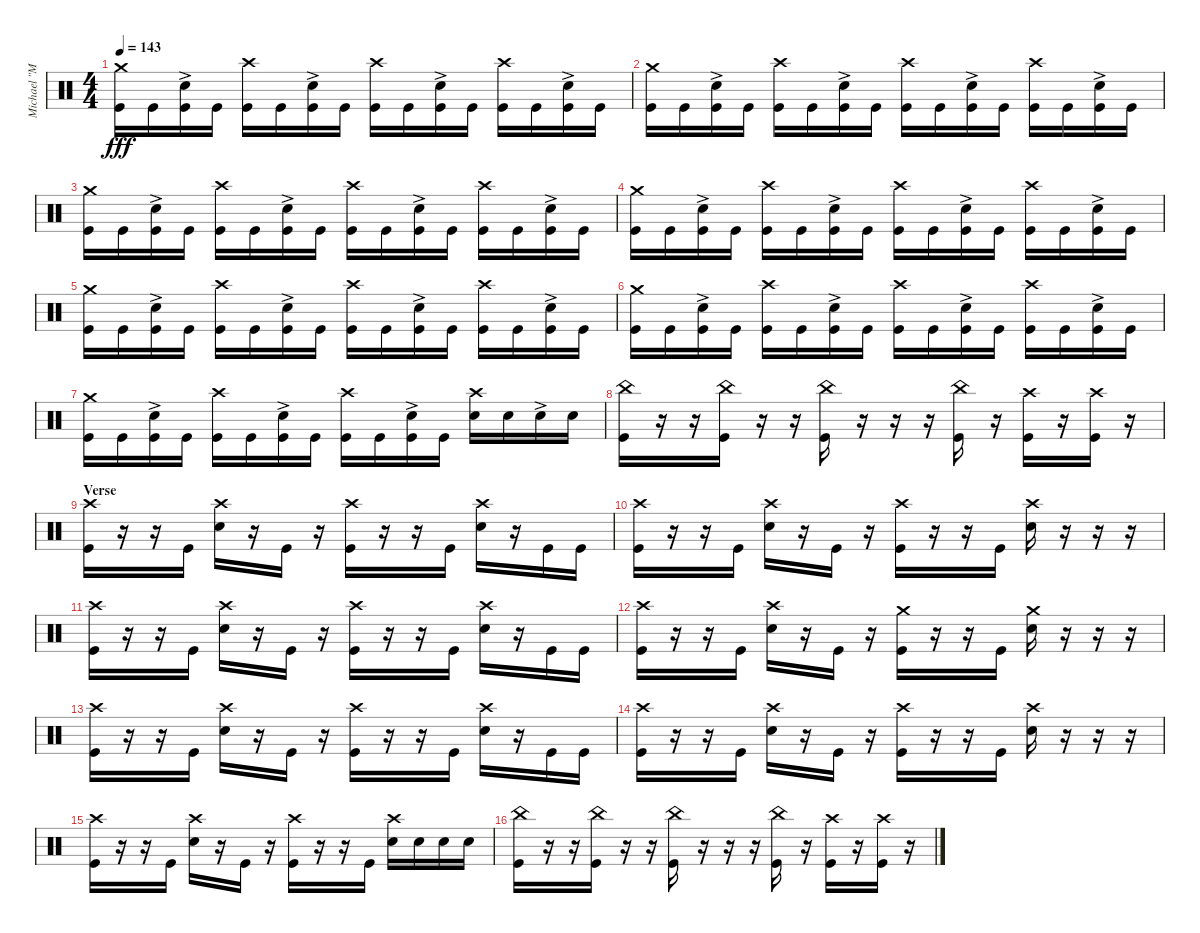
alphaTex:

\track ("Michael \"Moose\" Thomas" "Michael \"M") {instrument percussion}
\staff {score}
\articulation defaults
\ts (4 4)
\tempo 143
\clef neutral
\ks c
("Kick (hit)" "Crash medium (hit)").16{dy fff} "Kick (hit)".16 ("Kick (hit)" "Snare (hit) 2"{ac}).16 "Kick (hit)".16 ("Kick (hit)" "Crash high (hit)").16 "Kick (hit)".16 ("Kick (hit)" "Snare (hit) 2"{ac}).16 "Kick (hit)".16 ("Kick (hit)" "Crash high (hit)").16 "Kick (hit)".16 ("Kick (hit)" "Snare (hit) 2"{ac}).16 "Kick (hit)".16 ("Kick (hit)" "Crash high (hit)").16 "Kick (hit)".16 ("Kick (hit)" "Snare (hit) 2"{ac}).16 "Kick (hit)".16 |
("Kick (hit)" "Crash medium (hit)").16 "Kick (hit)".16 ("Kick (hit)" "Snare (hit) 2"{ac}).16 "Kick (hit)".16 ("Kick (hit)" "Crash high (hit)").16 "Kick (hit)".16 ("Kick (hit)" "Snare (hit) 2"{ac}).16 "Kick (hit)".16 ("Kick (hit)" "Crash high (hit)").16 "Kick (hit)".16 ("Kick (hit)" "Snare (hit) 2"{ac}).16 "Kick (hit)".16 ("Kick (hit)" "Crash high (hit)").16 "Kick (hit)".16 ("Kick (hit)" "Snare (hit) 2"{ac}).16 "Kick (hit)".16 |
("Kick (hit)" "Crash medium (hit)").16 "Kick (hit)".16 ("Kick (hit)" "Snare (hit) 2"{ac}).16 "Kick (hit)".16 ("Kick (hit)" "Crash high (hit)").16 "Kick (hit)".16 ("Kick (hit)" "Snare (hit) 2"{ac}).16 "Kick (hit)".16 ("Kick (hit)" "Crash high (hit)").16 "Kick (hit)".16 ("Kick (hit)" "Snare (hit) 2"{ac}).16 "Kick (hit)".16 ("Kick (hit)" "Crash high (hit)").16 "Kick (hit)".16 ("Kick (hit)" "Snare (hit) 2"{ac}).16 "Kick (hit)".16 |
("Kick (hit)" "Crash medium (hit)").16 "Kick (hit)".16 ("Kick (hit)" "Snare (hit) 2"{ac}).16 "Kick (hit)".16 ("Kick (hit)" "Crash high (hit)").16 "Kick (hit)".16 ("Kick (hit)" "Snare (hit) 2"{ac}).16 "Kick (hit)".16 ("Kick (hit)" "Crash high (hit)").16 "Kick (hit)".16 ("Kick (hit)" "Snare (hit) 2"{ac}).16 "Kick (hit)".16 ("Kick (hit)" "Crash high (hit)").16 "Kick (hit)".16 ("Kick (hit)" "Snare (hit) 2"{ac}).16 "Kick (hit)".16 |
("Kick (hit)" "Crash medium (hit)").16 "Kick (hit)".16 ("Kick (hit)" "Snare (hit) 2"{ac}).16 "Kick (hit)".16 ("Kick (hit)" "Crash high (hit)").16 "Kick (hit)".16 ("Kick (hit)" "Snare (hit) 2"{ac}).16 "Kick (hit)".16 ("Kick (hit)" "Crash high (hit)").16 "Kick (hit)".16 ("Kick (hit)" "Snare (hit) 2"{ac}).16 "Kick (hit)".16 ("Kick (hit)" "Crash high (hit)").16 "Kick (hit)".16 ("Kick (hit)" "Snare (hit) 2"{ac}).16 "Kick (hit)".16 |
("Kick (hit)" "Crash medium (hit)").16 "Kick (hit)".16 ("Kick (hit)" "Snare (hit) 2"{ac}).16 "Kick (hit)".16 ("Kick (hit)" "Crash high (hit)").16 "Kick (hit)".16 ("Kick (hit)" "Snare (hit) 2"{ac}).16 "Kick (hit)".16 ("Kick (hit)" "Crash high (hit)").16 "Kick (hit)".16 ("Kick (hit)" "Snare (hit) 2"{ac}).16 "Kick (hit)".16 ("Kick (hit)" "Crash high (hit)").16 "Kick (hit)".16 ("Kick (hit)" "Snare (hit) 2"{ac}).16 "Kick (hit)".16 |
("Kick (hit)" "Crash medium (hit)").16 "Kick (hit)".16 ("Kick (hit)" "Snare (hit) 2"{ac}).16 "Kick (hit)".16 ("Kick (hit)" "Crash high (hit)").16 "Kick (hit)".16 ("Kick (hit)" "Snare (hit) 2"{ac}).16 "Kick (hit)".16 ("Kick (hit)" "Crash high (hit)").16 "Kick (hit)".16 ("Kick (hit)" "Snare (hit) 2"{ac}).16 "Kick (hit)".16 ("Crash high (hit)" "Snare (hit) 2").16 "Snare (hit) 2".16 "Snare (hit) 2"{ac}.16 "Snare (hit) 2".16 |
("Kick (hit)" "China (hit)").16 r.16 r.16 ("Kick (hit)" "China (hit)").16 r.16 r.16 ("Kick (hit)" "China (hit)").16 r.16 r.16 r.16 ("Kick (hit)" "China (hit)").16 r.16 ("Kick (hit)" "Crash high (hit)").16 r.16 ("Kick (hit)" "Crash high (hit)").16 r.16 |
\section ("" "Verse")
("Kick (hit)" "Crash high (hit)").16 r.16 r.16 "Kick (hit)".16 ("Snare (hit) 2" "Crash high (hit)").16 r.16 "Kick (hit)".16 r.16 ("Kick (hit)" "Crash high (hit)").16 r.16 r.16 "Kick (hit)".16 ("Snare (hit) 2" "Crash high (hit)").16 r.16 "Kick (hit)".16 "Kick (hit)".16 |
("Kick (hit)" "Crash high (hit)").16 r.16 r.16 "Kick (hit)".16 ("Snare (hit) 2" "Crash high (hit)").16 r.16 "Kick (hit)".16 r.16 ("Kick (hit)" "Crash high (hit)").16 r.16 r.16 "Kick (hit)".16 ("Snare (hit) 2" "Crash high (hit)").16 r.16 r.16 r.16 |
("Kick (hit)" "Crash high (hit)").16 r.16 r.16 "Kick (hit)".16 ("Snare (hit) 2" "Crash high (hit)").16 r.16 "Kick (hit)".16 r.16 ("Kick (hit)" "Crash high (hit)").16 r.16 r.16 "Kick (hit)".16 ("Snare (hit) 2" "Crash high (hit)").16 r.16 "Kick (hit)".16 "Kick (hit)".16 |
("Kick (hit)" "Crash high (hit)").16 r.16 r.16 "Kick (hit)".16 ("Snare (hit) 2" "Crash high (hit)").16 r.16 "Kick (hit)".16 r.16 ("Kick (hit)" "Crash medium (hit)").16 r.16 r.16 "Kick (hit)".16 ("Snare (hit) 2" "Crash medium (hit)").16 r.16 r.16 r.16 |
("Kick (hit)" "Crash high (hit)").16 r.16 r.16 "Kick (hit)".16 ("Snare (hit) 2" "Crash high (hit)").16 r.16 "Kick (hit)".16 r.16 ("Kick (hit)" "Crash high (hit)").16 r.16 r.16 "Kick (hit)".16 ("Snare (hit) 2" "Crash high (hit)").16 r.16 "Kick (hit)".16 "Kick (hit)".16 |
("Kick (hit)" "Crash high (hit)").16 r.16 r.16 "Kick (hit)".16 ("Snare (hit) 2" "Crash high (hit)").16 r.16 "Kick (hit)".16 r.16 ("Kick (hit)" "Crash high (hit)").16 r.16 r.16 "Kick (hit)".16 ("Snare (hit) 2" "Crash high (hit)").16 r.16 r.16 r.16 |
("Kick (hit)" "Crash high (hit)").16 r.16 r.16 "Kick (hit)".16 ("Snare (hit) 2" "Crash high (hit)").16 r.16 "Kick (hit)".16 r.16 ("Kick (hit)" "Crash high (hit)").16 r.16 r.16 "Kick (hit)".16 ("Snare (hit) 2" "Crash high (hit)").16 "Snare (hit) 2".16 "Snare (hit) 2".16 "Snare (hit) 2".16 |
("Kick (hit)" "China (hit)").16 r.16 r.16 ("Kick (hit)" "China (hit)").16 r.16 r.16 ("Kick (hit)" "China (hit)").16 r.16 r.16 r.16 ("Kick (hit)" "China (hit)").16 r.16 ("Kick (hit)" "Crash high (hit)").16 r.16 ("Kick (hit)" "Crash high (hit)").16 r.16
